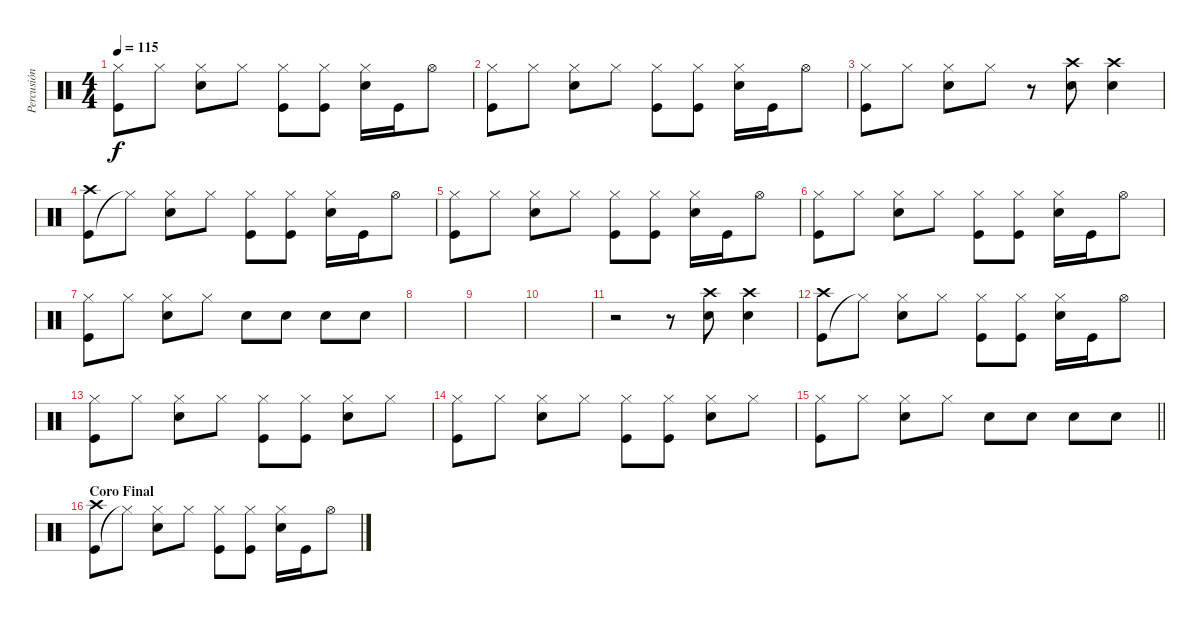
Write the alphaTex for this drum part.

\track ("Percusión" "Percusión") {instrument percussion}
\staff {score}
\articulation defaults
\ts (4 4)
\tempo 115
\clef neutral
\ks c
("Kick (hit)" "Hi-Hat (closed)").8{dy f} "Hi-Hat (closed)".8 ("Snare (hit) 2" "Hi-Hat (closed)").8 "Hi-Hat (closed)".8 ("Kick (hit)" "Hi-Hat (closed)").8 ("Kick (hit)" "Hi-Hat (closed)").8 ("Snare (hit) 2" "Hi-Hat (closed)").16 "Kick (hit)".16 "Hi-Hat (open)".8 |
("Kick (hit)" "Hi-Hat (closed)").8 "Hi-Hat (closed)".8 ("Snare (hit) 2" "Hi-Hat (closed)").8 "Hi-Hat (closed)".8 ("Kick (hit)" "Hi-Hat (closed)").8 ("Kick (hit)" "Hi-Hat (closed)").8 ("Snare (hit) 2" "Hi-Hat (closed)").16 "Kick (hit)".16 "Hi-Hat (open)".8 |
("Kick (hit)" "Hi-Hat (closed)").8 "Hi-Hat (closed)".8 ("Snare (hit) 2" "Hi-Hat (closed)").8 "Hi-Hat (closed)".8 r.8 ("Snare (hit) 2" "Crash high (hit)").8 ("Snare (hit) 2" "Crash high (hit)").4 |
("Kick (hit)" "Crash high (hit)").8 "Hi-Hat (closed)"{t}.8 ("Snare (hit) 2" "Hi-Hat (closed)").8 "Hi-Hat (closed)".8 ("Kick (hit)" "Hi-Hat (closed)").8 ("Kick (hit)" "Hi-Hat (closed)").8 ("Snare (hit) 2" "Hi-Hat (closed)").16 "Kick (hit)".16 "Hi-Hat (open)".8 |
("Kick (hit)" "Hi-Hat (closed)").8 "Hi-Hat (closed)".8 ("Snare (hit) 2" "Hi-Hat (closed)").8 "Hi-Hat (closed)".8 ("Kick (hit)" "Hi-Hat (closed)").8 ("Kick (hit)" "Hi-Hat (closed)").8 ("Snare (hit) 2" "Hi-Hat (closed)").16 "Kick (hit)".16 "Hi-Hat (open)".8 |
("Kick (hit)" "Hi-Hat (closed)").8 "Hi-Hat (closed)".8 ("Snare (hit) 2" "Hi-Hat (closed)").8 "Hi-Hat (closed)".8 ("Kick (hit)" "Hi-Hat (closed)").8 ("Kick (hit)" "Hi-Hat (closed)").8 ("Snare (hit) 2" "Hi-Hat (closed)").16 "Kick (hit)".16 "Hi-Hat (open)".8 |
("Kick (hit)" "Hi-Hat (closed)").8 "Hi-Hat (closed)".8 ("Snare (hit) 2" "Hi-Hat (closed)").8 "Hi-Hat (closed)".8 "Snare (hit) 2".8 "Snare (hit) 2".8 "Snare (hit) 2".8 "Snare (hit) 2".8 |
|
|
|
r.2 r.8 ("Snare (hit) 2" "Crash high (hit)").8 ("Snare (hit) 2" "Crash high (hit)").4 |
("Kick (hit)" "Crash high (hit)").8 "Hi-Hat (closed)"{t}.8 ("Snare (hit) 2" "Hi-Hat (closed)").8 "Hi-Hat (closed)".8 ("Kick (hit)" "Hi-Hat (closed)").8 ("Kick (hit)" "Hi-Hat (closed)").8 ("Snare (hit) 2" "Hi-Hat (closed)").16 "Kick (hit)".16 "Hi-Hat (open)".8 |
("Kick (hit)" "Hi-Hat (closed)").8 "Hi-Hat (closed)".8 ("Snare (hit) 2" "Hi-Hat (closed)").8 "Hi-Hat (closed)".8 ("Kick (hit)" "Hi-Hat (closed)").8 ("Kick (hit)" "Hi-Hat (closed)").8 ("Snare (hit) 2" "Hi-Hat (closed)").8 "Hi-Hat (closed)".8 |
("Kick (hit)" "Hi-Hat (closed)").8 "Hi-Hat (closed)".8 ("Snare (hit) 2" "Hi-Hat (closed)").8 "Hi-Hat (closed)".8 ("Kick (hit)" "Hi-Hat (closed)").8 ("Kick (hit)" "Hi-Hat (closed)").8 ("Snare (hit) 2" "Hi-Hat (closed)").8 "Hi-Hat (closed)".8 |
\barLineRight lightlight
("Kick (hit)" "Hi-Hat (closed)").8 "Hi-Hat (closed)".8 ("Snare (hit) 2" "Hi-Hat (closed)").8 "Hi-Hat (closed)".8 "Snare (hit) 2".8 "Snare (hit) 2".8 "Snare (hit) 2".8 "Snare (hit) 2".8 |
\section ("" "Coro Final")
("Kick (hit)" "Crash high (hit)").8 "Hi-Hat (closed)"{t}.8 ("Snare (hit) 2" "Hi-Hat (closed)").8 "Hi-Hat (closed)".8 ("Kick (hit)" "Hi-Hat (closed)").8 ("Kick (hit)" "Hi-Hat (closed)").8 ("Snare (hit) 2" "Hi-Hat (closed)").16 "Kick (hit)".16 "Hi-Hat (open)".8
